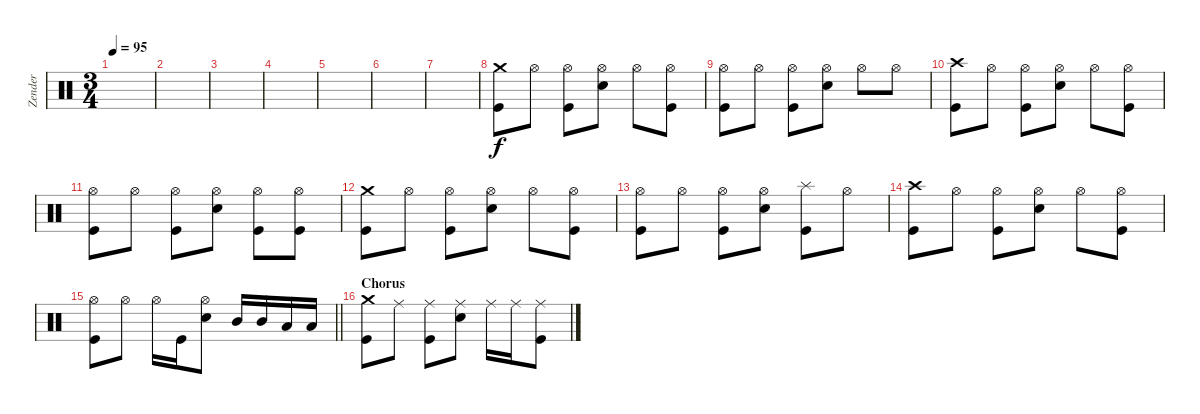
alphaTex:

\track ("Zender" "Zender") {instrument percussion}
\staff {score}
\articulation defaults
\ts (3 4)
\tempo 95
\clef neutral
\ks c
|
|
|
|
|
|
|
("Crash medium (hit)" "Kick (hit)").8 "Hi-Hat (open)".8 ("Hi-Hat (open)" "Kick (hit)").8 ("Hi-Hat (open)" "Snare (hit) 2").8 "Hi-Hat (open)".8 ("Hi-Hat (open)" "Kick (hit)").8 |
("Hi-Hat (open)" "Kick (hit)").8 "Hi-Hat (open)".8 ("Hi-Hat (open)" "Kick (hit)").8 ("Hi-Hat (open)" "Snare (hit) 2").8 "Hi-Hat (open)".8 "Hi-Hat (open)".8 |
("Crash high (hit)" "Kick (hit)").8 "Hi-Hat (open)".8 ("Hi-Hat (open)" "Kick (hit)").8 ("Hi-Hat (open)" "Snare (hit) 2").8 "Hi-Hat (open)".8 ("Hi-Hat (open)" "Kick (hit)").8 |
("Hi-Hat (open)" "Kick (hit)").8 "Hi-Hat (open)".8 ("Hi-Hat (open)" "Kick (hit)").8 ("Hi-Hat (open)" "Snare (hit) 2").8 ("Hi-Hat (open)" "Kick (hit)").8 ("Hi-Hat (open)" "Kick (hit)").8 |
("Crash medium (hit)" "Kick (hit)").8 "Hi-Hat (open)".8 ("Hi-Hat (open)" "Kick (hit)").8 ("Hi-Hat (open)" "Snare (hit) 2").8 "Hi-Hat (open)".8 ("Hi-Hat (open)" "Kick (hit)").8 |
("Hi-Hat (open)" "Kick (hit)").8 "Hi-Hat (open)".8 ("Hi-Hat (open)" "Kick (hit)").8 ("Hi-Hat (open)" "Snare (hit) 2").8 ("Splash (hit)" "Kick (hit)").8 "Hi-Hat (open)".8 |
("Crash high (hit)" "Kick (hit)").8 "Hi-Hat (open)".8 ("Hi-Hat (open)" "Kick (hit)").8 ("Hi-Hat (open)" "Snare (hit) 2").8 "Hi-Hat (open)".8 ("Hi-Hat (open)" "Kick (hit)").8 |
\barLineRight lightlight
("Hi-Hat (open)" "Kick (hit)").8 "Hi-Hat (open)".8 "Hi-Hat (open)".16 "Kick (hit)".16 ("Hi-Hat (open)" "Snare (hit) 2").8 "Mid Tom (hit)".16 "Mid Tom (hit)".16 "Low Tom (hit)".16 "Low Tom (hit)".16 |
\section ("" "Chorus")
("Crash medium (hit)" "Kick (hit)").8 "Ride (middle)".8 ("Ride (middle)" "Kick (hit)").8 ("Ride (middle)" "Snare (hit) 2").8 "Ride (middle)".16 "Ride (middle)".16 ("Ride (middle)" "Kick (hit)").8
